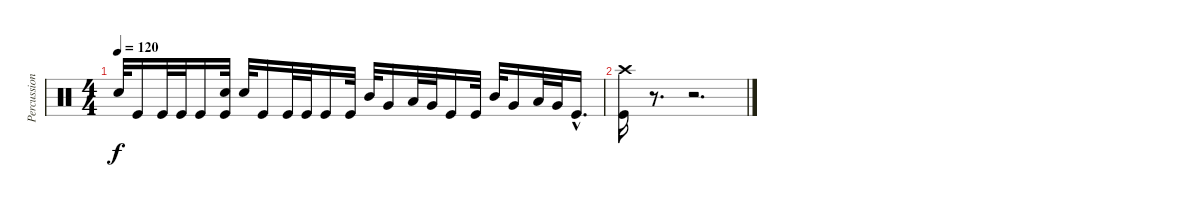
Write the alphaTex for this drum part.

\track ("Percussions" "Percussion") {instrument percussion}
\staff {score}
\articulation defaults
\ts (4 4)
\tempo 120
\clef neutral
\ks c "Snare (hit) 2".32{dy f} "Kick (hit)".16 "Kick (hit)".32 "Kick (hit)".32 "Kick (hit)".16
("Kick (hit)" "Snare (hit) 2").32 "Snare (hit) 2".32 "Kick (hit)".16 "Kick (hit)".32 "Kick (hit)".32 "Kick (hit)".16 "Kick (hit)".32 "Mid Tom (hit)".32 "Very Low Tom (hit)".16 "Low Tom (hit)".32 "Very Low Tom (hit)".32 "Kick (hit)".16 "Kick (hit)".32 "Mid Tom (hit)".32 "Very Low Tom (hit)".16 "Low Tom (hit)".32 "Very Low Tom (hit)".32 "Kick (hit)"{hac}.16{d} |
("Kick (hit)" "Crash high (hit)").16 r.8{d} r.2{d}
